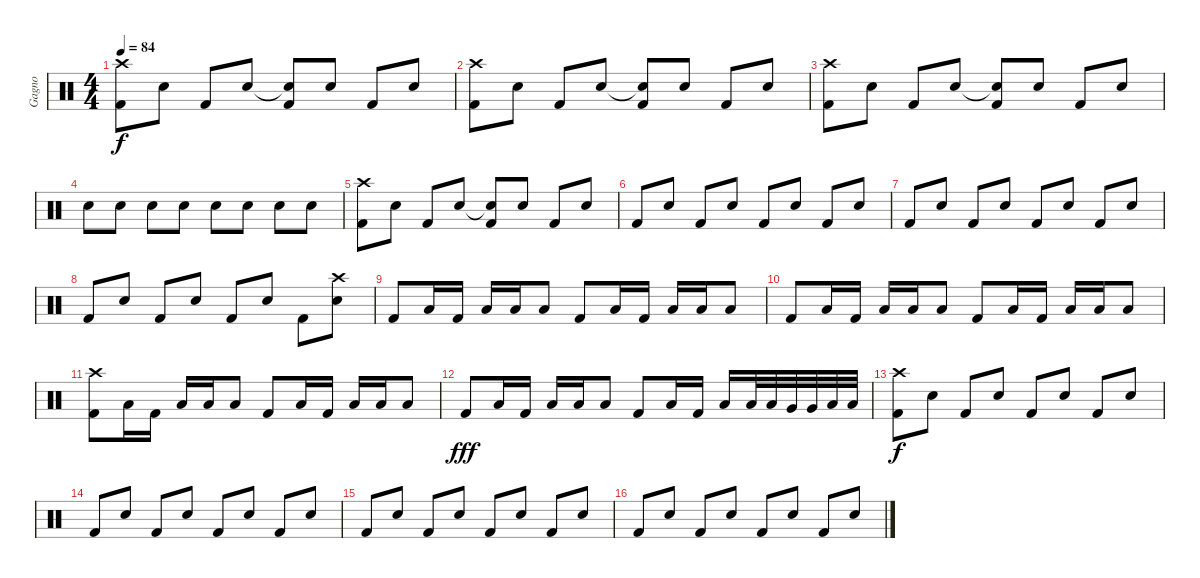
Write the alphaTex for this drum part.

\track ("Gagno" "Gagno") {instrument percussion}
\staff {score}
\articulation defaults
\ts (4 4)
\tempo 84
\clef neutral
\ks c
("Crash high (hit)" "Kick (hit) 2").8{dy f} "Electric Snare (hit)".8 "Kick (hit) 2".8 "Electric Snare (hit)".8 ("Snare (hit)"{t} "Kick (hit) 2").8 "Electric Snare (hit)".8 "Kick (hit) 2".8 "Electric Snare (hit)".8 |
("Crash high (hit)" "Kick (hit) 2").8 "Electric Snare (hit)".8 "Kick (hit) 2".8 "Electric Snare (hit)".8 ("Snare (hit)"{t} "Kick (hit) 2").8 "Electric Snare (hit)".8 "Kick (hit) 2".8 "Electric Snare (hit)".8 |
("Crash high (hit)" "Kick (hit) 2").8 "Electric Snare (hit)".8 "Kick (hit) 2".8 "Electric Snare (hit)".8 ("Snare (hit)"{t} "Kick (hit) 2").8 "Electric Snare (hit)".8 "Kick (hit) 2".8 "Electric Snare (hit)".8 |
"Electric Snare (hit)".8 "Electric Snare (hit)".8 "Electric Snare (hit)".8 "Electric Snare (hit)".8 "Electric Snare (hit)".8 "Electric Snare (hit)".8 "Electric Snare (hit)".8 "Electric Snare (hit)".8 |
("Crash high (hit)" "Kick (hit) 2").8 "Electric Snare (hit)".8 "Kick (hit) 2".8 "Electric Snare (hit)".8 ("Snare (hit)"{t} "Kick (hit) 2").8 "Electric Snare (hit)".8 "Kick (hit) 2".8 "Electric Snare (hit)".8 |
"Kick (hit) 2".8 "Electric Snare (hit)".8 "Kick (hit) 2".8 "Electric Snare (hit)".8 "Kick (hit) 2".8 "Electric Snare (hit)".8 "Kick (hit) 2".8 "Electric Snare (hit)".8 |
"Kick (hit) 2".8 "Electric Snare (hit)".8 "Kick (hit) 2".8 "Electric Snare (hit)".8 "Kick (hit) 2".8 "Electric Snare (hit)".8 "Kick (hit) 2".8 "Electric Snare (hit)".8 |
"Kick (hit) 2".8 "Electric Snare (hit)".8 "Kick (hit) 2".8 "Electric Snare (hit)".8 "Kick (hit) 2".8 "Electric Snare (hit)".8 "Kick (hit) 2".8 ("Crash high (hit)" "Electric Snare (hit)").8 |
"Kick (hit) 2".8 "Low Tom (hit)".16 "Kick (hit) 2".16 "Low Tom (hit)".16 "Low Tom (hit)".16 "Low Tom (hit)".8 "Kick (hit) 2".8 "Low Tom (hit)".16 "Kick (hit) 2".16 "Low Tom (hit)".16 "Low Tom (hit)".16 "Low Tom (hit)".8 |
"Kick (hit) 2".8 "Low Tom (hit)".16 "Kick (hit) 2".16 "Low Tom (hit)".16 "Low Tom (hit)".16 "Low Tom (hit)".8 "Kick (hit) 2".8 "Low Tom (hit)".16 "Kick (hit) 2".16 "Low Tom (hit)".16 "Low Tom (hit)".16 "Low Tom (hit)".8 |
("Crash high (hit)" "Kick (hit) 2").8 "Low Tom (hit)".16 "Kick (hit) 2".16 "Low Tom (hit)".16 "Low Tom (hit)".16 "Low Tom (hit)".8 "Kick (hit) 2".8 "Low Tom (hit)".16 "Kick (hit) 2".16 "Low Tom (hit)".16 "Low Tom (hit)".16 "Low Tom (hit)".8 |
"Kick (hit) 2".8{dy fff} "Low Tom (hit)".16 "Kick (hit) 2".16 "Low Tom (hit)".16 "Low Tom (hit)".16 "Low Tom (hit)".8 "Kick (hit) 2".8 "Low Tom (hit)".16 "Kick (hit) 2".16 "Low Tom (hit)".16 "Low Tom (hit)".32 "Low Tom (hit)".32 "Very Low Tom (hit)".32 "Very Low Tom (hit)".32 "Low Floor Tom (hit)".32 "Low Floor Tom (hit)".32 |
("Crash high (hit)" "Kick (hit) 2").8{dy f} "Electric Snare (hit)".8 "Kick (hit) 2".8 "Electric Snare (hit)".8 "Kick (hit) 2".8 "Electric Snare (hit)".8 "Kick (hit) 2".8 "Electric Snare (hit)".8 |
"Kick (hit) 2".8 "Electric Snare (hit)".8 "Kick (hit) 2".8 "Electric Snare (hit)".8 "Kick (hit) 2".8 "Electric Snare (hit)".8 "Kick (hit) 2".8 "Electric Snare (hit)".8 |
"Kick (hit) 2".8 "Electric Snare (hit)".8 "Kick (hit) 2".8 "Electric Snare (hit)".8 "Kick (hit) 2".8 "Electric Snare (hit)".8 "Kick (hit) 2".8 "Electric Snare (hit)".8 |
"Kick (hit) 2".8 "Electric Snare (hit)".8 "Kick (hit) 2".8 "Electric Snare (hit)".8 "Kick (hit) 2".8 "Electric Snare (hit)".8 "Kick (hit) 2".8 "Electric Snare (hit)".8
